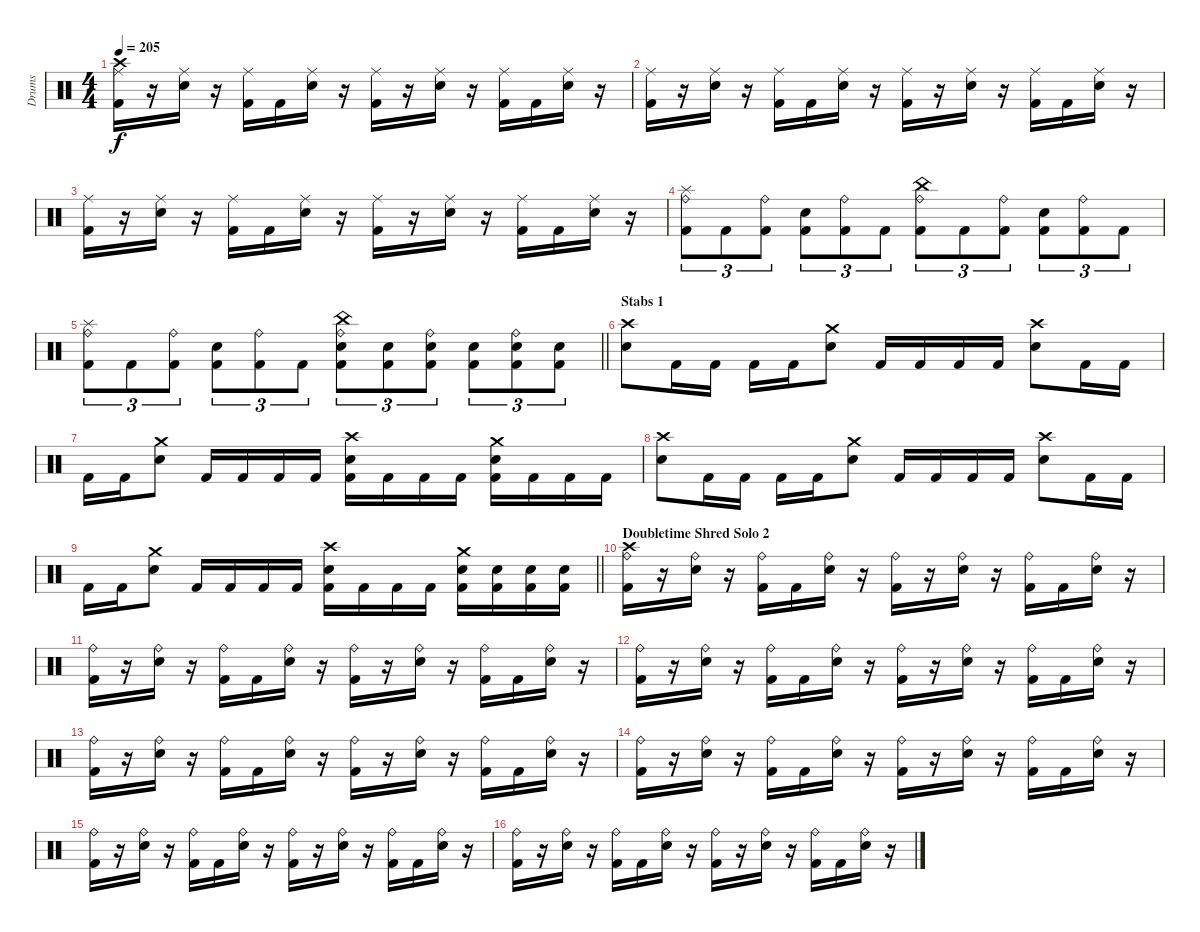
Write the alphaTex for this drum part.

\track ("Drums" "Drums") {instrument percussion}
\staff {score}
\articulation defaults
\ts (4 4)
\tempo 205
\clef neutral
\ks c
("Crash high (hit)" "Ride (middle)" "Kick (hit) 2").16{dy f} r.16 ("Ride (middle)" "Snare (hit) 2").16 r.16 ("Ride (middle)" "Kick (hit) 2").16 "Kick (hit) 2".16 ("Ride (middle)" "Snare (hit) 2").16 r.16 ("Ride (middle)" "Kick (hit) 2").16 r.16 ("Ride (middle)" "Snare (hit) 2").16 r.16 ("Ride (middle)" "Kick (hit) 2").16 "Kick (hit) 2".16 ("Ride (middle)" "Snare (hit) 2").16 r.16 |
("Ride (middle)" "Kick (hit) 2").16 r.16 ("Ride (middle)" "Snare (hit) 2").16 r.16 ("Ride (middle)" "Kick (hit) 2").16 "Kick (hit) 2".16 ("Ride (middle)" "Snare (hit) 2").16 r.16 ("Ride (middle)" "Kick (hit) 2").16 r.16 ("Ride (middle)" "Snare (hit) 2").16 r.16 ("Ride (middle)" "Kick (hit) 2").16 "Kick (hit) 2".16 ("Ride (middle)" "Snare (hit) 2").16 r.16 |
("Ride (middle)" "Kick (hit) 2").16 r.16 ("Ride (middle)" "Snare (hit) 2").16 r.16 ("Ride (middle)" "Kick (hit) 2").16 "Kick (hit) 2".16 ("Ride (middle)" "Snare (hit) 2").16 r.16 ("Ride (middle)" "Kick (hit) 2").16 r.16 ("Ride (middle)" "Snare (hit) 2").16 r.16 ("Ride (middle)" "Kick (hit) 2").16 "Kick (hit) 2".16 ("Ride (middle)" "Snare (hit) 2").16 r.16 |
("Splash (hit)" "Ride (bell)" "Kick (hit) 2").8{tu (3 2)} "Kick (hit) 2".8{tu (3 2)} ("Ride (bell)" "Kick (hit) 2").8{tu (3 2)} ("Snare (hit) 2" "Kick (hit) 2").8{tu (3 2)} ("Ride (bell)" "Kick (hit) 2").8{tu (3 2)} "Kick (hit) 2".8{tu (3 2)} ("China (hit)" "Ride (bell)" "Kick (hit) 2").8{tu (3 2)} "Kick (hit) 2".8{tu (3 2)} ("Ride (bell)" "Kick (hit) 2").8{tu (3 2)} ("Snare (hit) 2" "Kick (hit) 2").8{tu (3 2)} ("Ride (bell)" "Kick (hit) 2").8{tu (3 2)} "Kick (hit) 2".8{tu (3 2)} |
\barLineRight lightlight
("Splash (hit)" "Ride (bell)" "Kick (hit) 2").8{tu (3 2)} "Kick (hit) 2".8{tu (3 2)} ("Ride (bell)" "Kick (hit) 2").8{tu (3 2)} ("Snare (hit) 2" "Kick (hit) 2").8{tu (3 2)} ("Ride (bell)" "Kick (hit) 2").8{tu (3 2)} "Kick (hit) 2".8{tu (3 2)} ("China (hit)" "Ride (bell)" "Snare (hit) 2" "Kick (hit) 2").8{tu (3 2)} ("Snare (hit) 2" "Kick (hit) 2").8{tu (3 2)} ("Ride (bell)" "Snare (hit) 2" "Kick (hit) 2").8{tu (3 2)} ("Snare (hit) 2" "Kick (hit) 2").8{tu (3 2)} ("Ride (bell)" "Snare (hit) 2" "Kick (hit) 2").8{tu (3 2)} ("Snare (hit) 2" "Kick (hit) 2").8{tu (3 2)} |
\section ("" "Stabs 1")
("Crash high (hit)" "Snare (hit) 2").8 "Kick (hit) 2".16 "Kick (hit) 2".16 "Kick (hit) 2".16 "Kick (hit) 2".16 ("Crash medium (hit)" "Snare (hit) 2").8 "Kick (hit) 2".16 "Kick (hit) 2".16 "Kick (hit) 2".16 "Kick (hit) 2".16 ("Crash high (hit)" "Snare (hit) 2").8 "Kick (hit) 2".16 "Kick (hit) 2".16 |
"Kick (hit) 2".16 "Kick (hit) 2".16 ("Crash medium (hit)" "Snare (hit) 2").8 "Kick (hit) 2".16 "Kick (hit) 2".16 "Kick (hit) 2".16 "Kick (hit) 2".16 ("Crash high (hit)" "Snare (hit) 2" "Kick (hit) 2").16 "Kick (hit) 2".16 "Kick (hit) 2".16 "Kick (hit) 2".16 ("Crash medium (hit)" "Snare (hit) 2" "Kick (hit) 2").16 "Kick (hit) 2".16 "Kick (hit) 2".16 "Kick (hit) 2".16 |
("Crash high (hit)" "Snare (hit) 2").8 "Kick (hit) 2".16 "Kick (hit) 2".16 "Kick (hit) 2".16 "Kick (hit) 2".16 ("Crash medium (hit)" "Snare (hit) 2").8 "Kick (hit) 2".16 "Kick (hit) 2".16 "Kick (hit) 2".16 "Kick (hit) 2".16 ("Crash high (hit)" "Snare (hit) 2").8 "Kick (hit) 2".16 "Kick (hit) 2".16 |
\barLineRight lightlight "Kick (hit) 2".16 "Kick (hit) 2".16
("Crash medium (hit)" "Snare (hit) 2").8 "Kick (hit) 2".16 "Kick (hit) 2".16 "Kick (hit) 2".16 "Kick (hit) 2".16 ("Crash high (hit)" "Snare (hit) 2" "Kick (hit) 2").16 "Kick (hit) 2".16 "Kick (hit) 2".16 "Kick (hit) 2".16 ("Crash medium (hit)" "Snare (hit) 2" "Kick (hit) 2").16 ("Snare (hit) 2" "Kick (hit) 2").16 ("Snare (hit) 2" "Kick (hit) 2").16 ("Snare (hit) 2" "Kick (hit) 2").16 |
\section ("" "Doubletime Shred Solo 2")
("Crash high (hit)" "Ride (bell)" "Kick (hit) 2").16 r.16 ("Ride (bell)" "Snare (hit) 2").16 r.16 ("Ride (bell)" "Kick (hit) 2").16 "Kick (hit) 2".16 ("Ride (bell)" "Snare (hit) 2").16 r.16 ("Ride (bell)" "Kick (hit) 2").16 r.16 ("Ride (bell)" "Snare (hit) 2").16 r.16 ("Ride (bell)" "Kick (hit) 2").16 "Kick (hit) 2".16 ("Ride (bell)" "Snare (hit) 2").16 r.16 |
("Ride (bell)" "Kick (hit) 2").16 r.16 ("Ride (bell)" "Snare (hit) 2").16 r.16 ("Ride (bell)" "Kick (hit) 2").16 "Kick (hit) 2".16 ("Ride (bell)" "Snare (hit) 2").16 r.16 ("Ride (bell)" "Kick (hit) 2").16 r.16 ("Ride (bell)" "Snare (hit) 2").16 r.16 ("Ride (bell)" "Kick (hit) 2").16 "Kick (hit) 2".16 ("Ride (bell)" "Snare (hit) 2").16 r.16 |
("Ride (bell)" "Kick (hit) 2").16 r.16 ("Ride (bell)" "Snare (hit) 2").16 r.16 ("Ride (bell)" "Kick (hit) 2").16 "Kick (hit) 2".16 ("Ride (bell)" "Snare (hit) 2").16 r.16 ("Ride (bell)" "Kick (hit) 2").16 r.16 ("Ride (bell)" "Snare (hit) 2").16 r.16 ("Ride (bell)" "Kick (hit) 2").16 "Kick (hit) 2".16 ("Ride (bell)" "Snare (hit) 2").16 r.16 |
("Ride (bell)" "Kick (hit) 2").16 r.16 ("Ride (bell)" "Snare (hit) 2").16 r.16 ("Ride (bell)" "Kick (hit) 2").16 "Kick (hit) 2".16 ("Ride (bell)" "Snare (hit) 2").16 r.16 ("Ride (bell)" "Kick (hit) 2").16 r.16 ("Ride (bell)" "Snare (hit) 2").16 r.16 ("Ride (bell)" "Kick (hit) 2").16 "Kick (hit) 2".16 ("Ride (bell)" "Snare (hit) 2").16 r.16 |
("Ride (bell)" "Kick (hit) 2").16 r.16 ("Ride (bell)" "Snare (hit) 2").16 r.16 ("Ride (bell)" "Kick (hit) 2").16 "Kick (hit) 2".16 ("Ride (bell)" "Snare (hit) 2").16 r.16 ("Ride (bell)" "Kick (hit) 2").16 r.16 ("Ride (bell)" "Snare (hit) 2").16 r.16 ("Ride (bell)" "Kick (hit) 2").16 "Kick (hit) 2".16 ("Ride (bell)" "Snare (hit) 2").16 r.16 |
("Ride (bell)" "Kick (hit) 2").16 r.16 ("Ride (bell)" "Snare (hit) 2").16 r.16 ("Ride (bell)" "Kick (hit) 2").16 "Kick (hit) 2".16 ("Ride (bell)" "Snare (hit) 2").16 r.16 ("Ride (bell)" "Kick (hit) 2").16 r.16 ("Ride (bell)" "Snare (hit) 2").16 r.16 ("Ride (bell)" "Kick (hit) 2").16 "Kick (hit) 2".16 ("Ride (bell)" "Snare (hit) 2").16 r.16 |
("Ride (bell)" "Kick (hit) 2").16 r.16 ("Ride (bell)" "Snare (hit) 2").16 r.16 ("Ride (bell)" "Kick (hit) 2").16 "Kick (hit) 2".16 ("Ride (bell)" "Snare (hit) 2").16 r.16 ("Ride (bell)" "Kick (hit) 2").16 r.16 ("Ride (bell)" "Snare (hit) 2").16 r.16 ("Ride (bell)" "Kick (hit) 2").16 "Kick (hit) 2".16 ("Ride (bell)" "Snare (hit) 2").16 r.16
